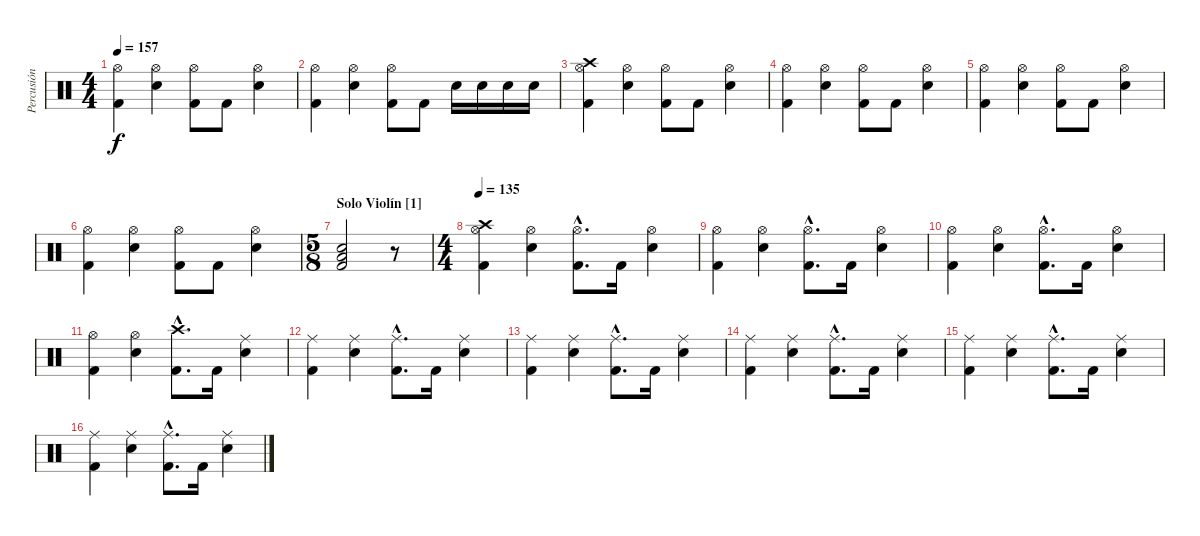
\track ("Percusión" "Percusión") {instrument percussion}
\staff {score}
\articulation defaults
\ts (4 4)
\tempo 157
\clef neutral
\ks c
("Hi-Hat (open)" "Kick (hit) 2").4{dy f} ("Hi-Hat (open)" "Snare (hit) 2").4 ("Hi-Hat (open)" "Kick (hit) 2").8 "Kick (hit) 2".8 ("Hi-Hat (open)" "Snare (hit) 2").4 |
("Hi-Hat (open)" "Kick (hit) 2").4 ("Hi-Hat (open)" "Snare (hit) 2").4 ("Hi-Hat (open)" "Kick (hit) 2").8 "Kick (hit) 2".8 "Snare (hit) 2".16 "Snare (hit) 2".16 "Snare (hit) 2".16 "Snare (hit) 2".16 |
("Crash high (hit)" "Hi-Hat (open)" "Kick (hit) 2").4 ("Hi-Hat (open)" "Snare (hit) 2").4 ("Hi-Hat (open)" "Kick (hit) 2").8 "Kick (hit) 2".8 ("Hi-Hat (open)" "Snare (hit) 2").4 |
("Hi-Hat (open)" "Kick (hit) 2").4 ("Hi-Hat (open)" "Snare (hit) 2").4 ("Hi-Hat (open)" "Kick (hit) 2").8 "Kick (hit) 2".8 ("Hi-Hat (open)" "Snare (hit) 2").4 |
("Hi-Hat (open)" "Kick (hit) 2").4 ("Hi-Hat (open)" "Snare (hit) 2").4 ("Hi-Hat (open)" "Kick (hit) 2").8 "Kick (hit) 2".8 ("Hi-Hat (open)" "Snare (hit) 2").4 |
("Hi-Hat (open)" "Kick (hit) 2").4 ("Hi-Hat (open)" "Snare (hit) 2").4 ("Hi-Hat (open)" "Kick (hit) 2").8 "Kick (hit) 2".8 ("Hi-Hat (open)" "Snare (hit) 2").4 |
\ts (5 8)
\section ("" "Solo Violín [1]")
("Snare (hit) 2" "Low Floor Tom (hit)" "Kick (hit) 2").2 r.8 |
\ts (4 4)
\tempo 135
("Crash high (hit)" "Hi-Hat (open)" "Kick (hit) 2").4 ("Hi-Hat (open)" "Snare (hit) 2").4 ("Hi-Hat (open)"{hac} "Kick (hit) 2"{hac}).8{d} "Kick (hit) 2".16 ("Hi-Hat (open)" "Snare (hit) 2").4 |
("Hi-Hat (open)" "Kick (hit) 2").4 ("Hi-Hat (open)" "Snare (hit) 2").4 ("Hi-Hat (open)"{hac} "Kick (hit) 2"{hac}).8{d} "Kick (hit) 2".16 ("Hi-Hat (open)" "Snare (hit) 2").4 |
("Hi-Hat (open)" "Kick (hit) 2").4 ("Hi-Hat (open)" "Snare (hit) 2").4 ("Hi-Hat (open)"{hac} "Kick (hit) 2"{hac}).8{d} "Kick (hit) 2".16 ("Hi-Hat (open)" "Snare (hit) 2").4 |
("Hi-Hat (open)" "Kick (hit) 2").4 ("Hi-Hat (open)" "Snare (hit) 2").4 ("Crash high (hit)"{hac} "Kick (hit) 2"{hac}).8{d} "Kick (hit) 2".16 ("Ride (middle)" "Snare (hit) 2").4 |
("Ride (middle)" "Kick (hit) 2").4 ("Ride (middle)" "Snare (hit) 2").4 ("Ride (middle)"{hac} "Kick (hit) 2"{hac}).8{d} "Kick (hit) 2".16 ("Ride (middle)" "Snare (hit) 2").4 |
("Ride (middle)" "Kick (hit) 2").4 ("Ride (middle)" "Snare (hit) 2").4 ("Ride (middle)"{hac} "Kick (hit) 2"{hac}).8{d} "Kick (hit) 2".16 ("Ride (middle)" "Snare (hit) 2").4 |
("Ride (middle)" "Kick (hit) 2").4 ("Ride (middle)" "Snare (hit) 2").4 ("Ride (middle)"{hac} "Kick (hit) 2"{hac}).8{d} "Kick (hit) 2".16 ("Ride (middle)" "Snare (hit) 2").4 |
("Ride (middle)" "Kick (hit) 2").4 ("Ride (middle)" "Snare (hit) 2").4 ("Ride (middle)"{hac} "Kick (hit) 2"{hac}).8{d} "Kick (hit) 2".16 ("Ride (middle)" "Snare (hit) 2").4 |
("Ride (middle)" "Kick (hit) 2").4 ("Ride (middle)" "Snare (hit) 2").4 ("Ride (middle)"{hac} "Kick (hit) 2"{hac}).8{d} "Kick (hit) 2".16 ("Ride (middle)" "Snare (hit) 2").4
